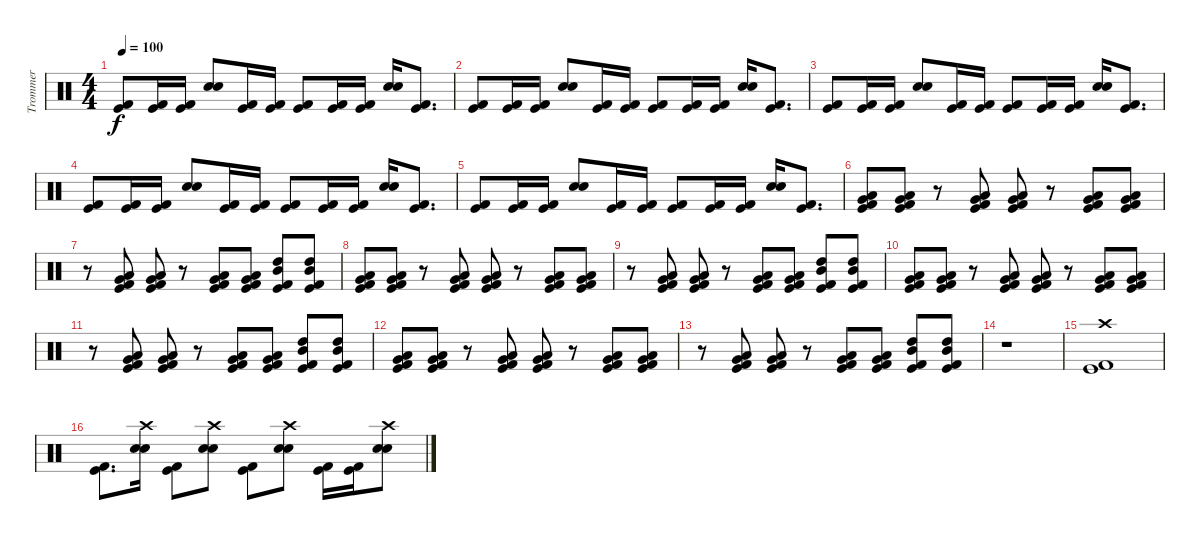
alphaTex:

\track ("Trommer" "Trommer") {instrument percussion}
\staff {score}
\articulation defaults
\ts (4 4)
\tempo 100
\clef neutral
\ks c
("Kick (hit)" "Kick (hit) 2").8{dy f} ("Kick (hit)" "Kick (hit) 2").16 ("Kick (hit)" "Kick (hit) 2").16 ("Snare (hit) 2" "Electric Snare (hit)").8 ("Kick (hit)" "Kick (hit) 2").16 ("Kick (hit)" "Kick (hit) 2").16 ("Kick (hit)" "Kick (hit) 2").8 ("Kick (hit)" "Kick (hit) 2").16 ("Kick (hit)" "Kick (hit) 2").16 ("Snare (hit) 2" "Electric Snare (hit)").16 ("Kick (hit)" "Kick (hit) 2").8{d} |
("Kick (hit)" "Kick (hit) 2").8 ("Kick (hit)" "Kick (hit) 2").16 ("Kick (hit)" "Kick (hit) 2").16 ("Snare (hit) 2" "Electric Snare (hit)").8 ("Kick (hit)" "Kick (hit) 2").16 ("Kick (hit)" "Kick (hit) 2").16 ("Kick (hit)" "Kick (hit) 2").8 ("Kick (hit)" "Kick (hit) 2").16 ("Kick (hit)" "Kick (hit) 2").16 ("Snare (hit) 2" "Electric Snare (hit)").16 ("Kick (hit)" "Kick (hit) 2").8{d} |
("Kick (hit)" "Kick (hit) 2").8 ("Kick (hit)" "Kick (hit) 2").16 ("Kick (hit)" "Kick (hit) 2").16 ("Snare (hit) 2" "Electric Snare (hit)").8 ("Kick (hit)" "Kick (hit) 2").16 ("Kick (hit)" "Kick (hit) 2").16 ("Kick (hit)" "Kick (hit) 2").8 ("Kick (hit)" "Kick (hit) 2").16 ("Kick (hit)" "Kick (hit) 2").16 ("Snare (hit) 2" "Electric Snare (hit)").16 ("Kick (hit)" "Kick (hit) 2").8{d} |
("Kick (hit)" "Kick (hit) 2").8 ("Kick (hit)" "Kick (hit) 2").16 ("Kick (hit)" "Kick (hit) 2").16 ("Snare (hit) 2" "Electric Snare (hit)").8 ("Kick (hit)" "Kick (hit) 2").16 ("Kick (hit)" "Kick (hit) 2").16 ("Kick (hit)" "Kick (hit) 2").8 ("Kick (hit)" "Kick (hit) 2").16 ("Kick (hit)" "Kick (hit) 2").16 ("Snare (hit) 2" "Electric Snare (hit)").16 ("Kick (hit)" "Kick (hit) 2").8{d} |
("Kick (hit)" "Kick (hit) 2").8 ("Kick (hit)" "Kick (hit) 2").16 ("Kick (hit)" "Kick (hit) 2").16 ("Snare (hit) 2" "Electric Snare (hit)").8 ("Kick (hit)" "Kick (hit) 2").16 ("Kick (hit)" "Kick (hit) 2").16 ("Kick (hit)" "Kick (hit) 2").8 ("Kick (hit)" "Kick (hit) 2").16 ("Kick (hit)" "Kick (hit) 2").16 ("Snare (hit) 2" "Electric Snare (hit)").16 ("Kick (hit)" "Kick (hit) 2").8{d} |
("Kick (hit)" "Kick (hit) 2" "Low Tom (hit)" "Very Low Tom (hit)").8 ("Kick (hit)" "Kick (hit) 2" "Low Tom (hit)" "Very Low Tom (hit)").8 r.8 ("Kick (hit)" "Kick (hit) 2" "Low Tom (hit)" "Very Low Tom (hit)").8 ("Kick (hit)" "Kick (hit) 2" "Low Tom (hit)" "Very Low Tom (hit)").8 r.8 ("Kick (hit)" "Kick (hit) 2" "Low Tom (hit)" "Very Low Tom (hit)").8 ("Kick (hit)" "Kick (hit) 2" "Low Tom (hit)" "Very Low Tom (hit)").8 |
r.8 ("Kick (hit)" "Kick (hit) 2" "Low Tom (hit)" "Very Low Tom (hit)").8 ("Kick (hit)" "Kick (hit) 2" "Low Tom (hit)" "Very Low Tom (hit)").8 r.8 ("Kick (hit)" "Kick (hit) 2" "Low Tom (hit)" "Very Low Tom (hit)").8 ("Kick (hit)" "Kick (hit) 2" "Low Tom (hit)" "Very Low Tom (hit)").8 ("Kick (hit)" "Kick (hit) 2" "High Tom (hit)" "Mid Tom (hit)").8 ("Kick (hit)" "Kick (hit) 2" "High Tom (hit)" "Mid Tom (hit)").8 |
("Kick (hit)" "Kick (hit) 2" "Low Tom (hit)" "Very Low Tom (hit)").8 ("Kick (hit)" "Kick (hit) 2" "Low Tom (hit)" "Very Low Tom (hit)").8 r.8 ("Kick (hit)" "Kick (hit) 2" "Low Tom (hit)" "Very Low Tom (hit)").8 ("Kick (hit)" "Kick (hit) 2" "Low Tom (hit)" "Very Low Tom (hit)").8 r.8 ("Kick (hit)" "Kick (hit) 2" "Low Tom (hit)" "Very Low Tom (hit)").8 ("Kick (hit)" "Kick (hit) 2" "Low Tom (hit)" "Very Low Tom (hit)").8 |
r.8 ("Kick (hit)" "Kick (hit) 2" "Low Tom (hit)" "Very Low Tom (hit)").8 ("Kick (hit)" "Kick (hit) 2" "Low Tom (hit)" "Very Low Tom (hit)").8 r.8 ("Kick (hit)" "Kick (hit) 2" "Low Tom (hit)" "Very Low Tom (hit)").8 ("Kick (hit)" "Kick (hit) 2" "Low Tom (hit)" "Very Low Tom (hit)").8 ("Kick (hit)" "Kick (hit) 2" "High Tom (hit)" "Mid Tom (hit)").8 ("Kick (hit)" "Kick (hit) 2" "High Tom (hit)" "Mid Tom (hit)").8 |
("Kick (hit)" "Kick (hit) 2" "Low Tom (hit)" "Very Low Tom (hit)").8 ("Kick (hit)" "Kick (hit) 2" "Low Tom (hit)" "Very Low Tom (hit)").8 r.8 ("Kick (hit)" "Kick (hit) 2" "Low Tom (hit)" "Very Low Tom (hit)").8 ("Kick (hit)" "Kick (hit) 2" "Low Tom (hit)" "Very Low Tom (hit)").8 r.8 ("Kick (hit)" "Kick (hit) 2" "Low Tom (hit)" "Very Low Tom (hit)").8 ("Kick (hit)" "Kick (hit) 2" "Low Tom (hit)" "Very Low Tom (hit)").8 |
r.8 ("Kick (hit)" "Kick (hit) 2" "Low Tom (hit)" "Very Low Tom (hit)").8 ("Kick (hit)" "Kick (hit) 2" "Low Tom (hit)" "Very Low Tom (hit)").8 r.8 ("Kick (hit)" "Kick (hit) 2" "Low Tom (hit)" "Very Low Tom (hit)").8 ("Kick (hit)" "Kick (hit) 2" "Low Tom (hit)" "Very Low Tom (hit)").8 ("Kick (hit)" "Kick (hit) 2" "High Tom (hit)" "Mid Tom (hit)").8 ("Kick (hit)" "Kick (hit) 2" "High Tom (hit)" "Mid Tom (hit)").8 |
("Kick (hit)" "Kick (hit) 2" "Low Tom (hit)" "Very Low Tom (hit)").8 ("Kick (hit)" "Kick (hit) 2" "Low Tom (hit)" "Very Low Tom (hit)").8 r.8 ("Kick (hit)" "Kick (hit) 2" "Low Tom (hit)" "Very Low Tom (hit)").8 ("Kick (hit)" "Kick (hit) 2" "Low Tom (hit)" "Very Low Tom (hit)").8 r.8 ("Kick (hit)" "Kick (hit) 2" "Low Tom (hit)" "Very Low Tom (hit)").8 ("Kick (hit)" "Kick (hit) 2" "Low Tom (hit)" "Very Low Tom (hit)").8 |
r.8 ("Kick (hit)" "Kick (hit) 2" "Low Tom (hit)" "Very Low Tom (hit)").8 ("Kick (hit)" "Kick (hit) 2" "Low Tom (hit)" "Very Low Tom (hit)").8 r.8 ("Kick (hit)" "Kick (hit) 2" "Low Tom (hit)" "Very Low Tom (hit)").8 ("Kick (hit)" "Kick (hit) 2" "Low Tom (hit)" "Very Low Tom (hit)").8 ("Kick (hit)" "Kick (hit) 2" "High Tom (hit)" "Mid Tom (hit)").8 ("Kick (hit)" "Kick (hit) 2" "High Tom (hit)" "Mid Tom (hit)").8 |
r.1 |
("Crash high (hit)" "Kick (hit)" "Kick (hit) 2").1 |
("Kick (hit)" "Kick (hit) 2").8{d} ("Crash high (hit)" "Snare (hit) 2" "Electric Snare (hit)").16 ("Kick (hit)" "Kick (hit) 2").8 ("Crash high (hit)" "Snare (hit) 2" "Electric Snare (hit)").8 ("Kick (hit)" "Kick (hit) 2").8 ("Crash high (hit)" "Electric Snare (hit)" "Snare (hit) 2").8 ("Kick (hit)" "Kick (hit) 2").16 ("Kick (hit)" "Kick (hit) 2").16 ("Crash high (hit)" "Snare (hit) 2" "Electric Snare (hit)").8
